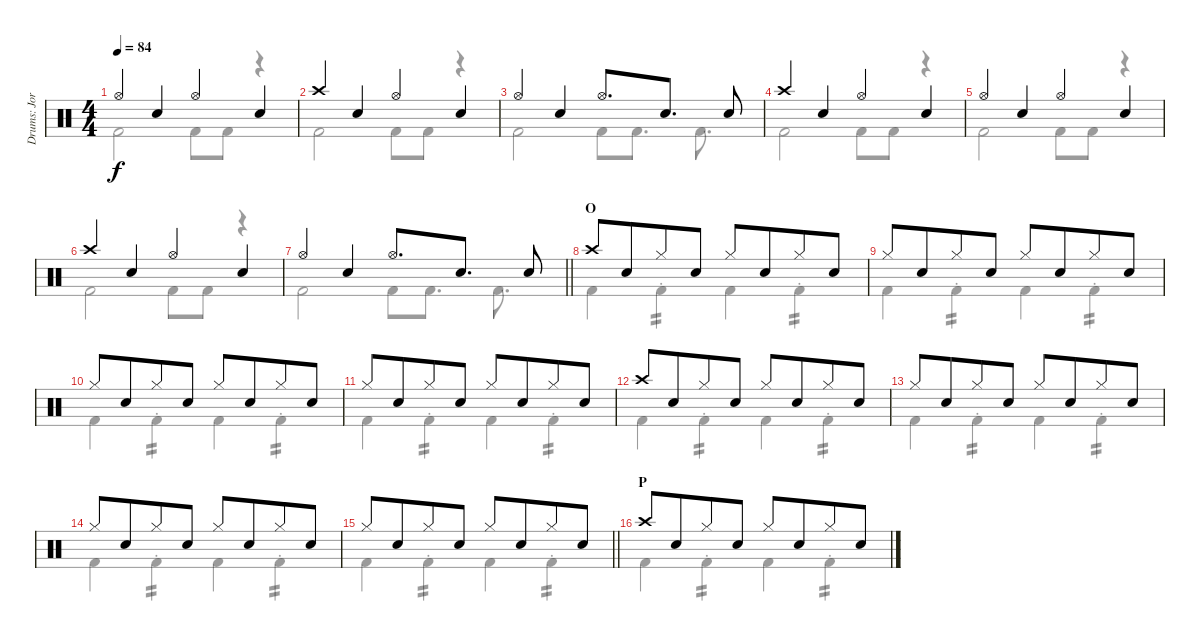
\track ("Drums: Jorg" "Drums: Jor") {instrument percussion}
\staff {score}
\articulation defaults
\voice
\ts (4 4)
\tempo 84
\clef neutral
\ks c "Hi-Hat (open)".4{dy f} "Snare (hit) 2".4 "Hi-Hat (open)".4 "Snare (hit) 2".4
|
"Crash high (hit)".4 "Snare (hit) 2".4 "Hi-Hat (open)".4 "Snare (hit) 2".4 |
"Hi-Hat (open)".4 "Snare (hit) 2".4 "Hi-Hat (open)".8{d} "Snare (hit) 2".8{d} "Snare (hit) 2".8 |
"Crash high (hit)".4 "Snare (hit) 2".4 "Hi-Hat (open)".4 "Snare (hit) 2".4 |
"Hi-Hat (open)".4 "Snare (hit) 2".4 "Hi-Hat (open)".4 "Snare (hit) 2".4 |
"Crash high (hit)".4 "Snare (hit) 2".4 "Hi-Hat (open)".4 "Snare (hit) 2".4 |
\barLineRight lightlight "Hi-Hat (open)".4 "Snare (hit) 2".4 "Hi-Hat (open)".8{d} "Snare (hit) 2".8{d} "Snare (hit) 2".8
|
\section ("" "O")
"Crash high (hit)".8 "Snare (hit) 2".8{beam merge} "Hi-Hat (closed)".8 "Snare (hit) 2".8 "Hi-Hat (closed)".8 "Snare (hit) 2".8{beam merge} "Hi-Hat (closed)".8 "Snare (hit) 2".8 |
"Hi-Hat (closed)".8 "Snare (hit) 2".8{beam merge} "Hi-Hat (closed)".8 "Snare (hit) 2".8 "Hi-Hat (closed)".8 "Snare (hit) 2".8{beam merge} "Hi-Hat (closed)".8 "Snare (hit) 2".8 |
"Hi-Hat (closed)".8 "Snare (hit) 2".8{beam merge} "Hi-Hat (closed)".8 "Snare (hit) 2".8 "Hi-Hat (closed)".8 "Snare (hit) 2".8{beam merge} "Hi-Hat (closed)".8 "Snare (hit) 2".8 |
"Hi-Hat (closed)".8 "Snare (hit) 2".8{beam merge} "Hi-Hat (closed)".8 "Snare (hit) 2".8 "Hi-Hat (closed)".8 "Snare (hit) 2".8{beam merge} "Hi-Hat (closed)".8 "Snare (hit) 2".8 |
"Crash high (hit)".8 "Snare (hit) 2".8{beam merge} "Hi-Hat (closed)".8 "Snare (hit) 2".8 "Hi-Hat (closed)".8 "Snare (hit) 2".8{beam merge} "Hi-Hat (closed)".8 "Snare (hit) 2".8 |
"Hi-Hat (closed)".8 "Snare (hit) 2".8{beam merge} "Hi-Hat (closed)".8 "Snare (hit) 2".8 "Hi-Hat (closed)".8 "Snare (hit) 2".8{beam merge} "Hi-Hat (closed)".8 "Snare (hit) 2".8 |
"Hi-Hat (closed)".8 "Snare (hit) 2".8{beam merge} "Hi-Hat (closed)".8 "Snare (hit) 2".8 "Hi-Hat (closed)".8 "Snare (hit) 2".8{beam merge} "Hi-Hat (closed)".8 "Snare (hit) 2".8 |
\barLineRight lightlight "Hi-Hat (closed)".8 "Snare (hit) 2".8{beam merge} "Hi-Hat (closed)".8 "Snare (hit) 2".8 "Hi-Hat (closed)".8 "Snare (hit) 2".8{beam merge} "Hi-Hat (closed)".8 "Snare (hit) 2".8
|
\section ("" "P")
"Crash high (hit)".8 "Snare (hit) 2".8{beam merge} "Hi-Hat (closed)".8 "Snare (hit) 2".8 "Hi-Hat (closed)".8 "Snare (hit) 2".8{beam merge} "Hi-Hat (closed)".8 "Snare (hit) 2".8
\voice
\clef neutral
\ottava regular
\simile none
\ks c "Kick (hit) 2".2{dy f} "Kick (hit) 2".8 "Kick (hit) 2".8
r.4 |
"Kick (hit) 2".2 "Kick (hit) 2".8 "Kick (hit) 2".8 r.4 |
"Kick (hit) 2".2 "Kick (hit) 2".8 "Kick (hit) 2".8{d} "Kick (hit) 2".8{d} |
"Kick (hit) 2".2 "Kick (hit) 2".8 "Kick (hit) 2".8 r.4 |
"Kick (hit) 2".2 "Kick (hit) 2".8 "Kick (hit) 2".8 r.4 |
"Kick (hit) 2".2 "Kick (hit) 2".8 "Kick (hit) 2".8 r.4 |
\barLineRight lightlight "Kick (hit) 2".2 "Kick (hit) 2".8 "Kick (hit) 2".8{d} "Kick (hit) 2".8{d}
|
"Kick (hit) 2".4 "Kick (hit) 2"{st}.4{tp 2} "Kick (hit) 2".4 "Kick (hit) 2"{st}.4{tp 2} |
"Kick (hit) 2".4 "Kick (hit) 2"{st}.4{tp 2} "Kick (hit) 2".4 "Kick (hit) 2"{st}.4{tp 2} |
"Kick (hit) 2".4 "Kick (hit) 2"{st}.4{tp 2} "Kick (hit) 2".4 "Kick (hit) 2"{st}.4{tp 2} |
"Kick (hit) 2".4 "Kick (hit) 2"{st}.4{tp 2} "Kick (hit) 2".4 "Kick (hit) 2"{st}.4{tp 2} |
"Kick (hit) 2".4 "Kick (hit) 2"{st}.4{tp 2} "Kick (hit) 2".4 "Kick (hit) 2"{st}.4{tp 2} |
"Kick (hit) 2".4 "Kick (hit) 2"{st}.4{tp 2} "Kick (hit) 2".4 "Kick (hit) 2"{st}.4{tp 2} |
"Kick (hit) 2".4 "Kick (hit) 2"{st}.4{tp 2} "Kick (hit) 2".4 "Kick (hit) 2"{st}.4{tp 2} |
\barLineRight lightlight "Kick (hit) 2".4 "Kick (hit) 2"{st}.4{tp 2} "Kick (hit) 2".4 "Kick (hit) 2"{st}.4{tp 2}
|
"Kick (hit) 2".4 "Kick (hit) 2"{st}.4{tp 2} "Kick (hit) 2".4 "Kick (hit) 2"{st}.4{tp 2}
